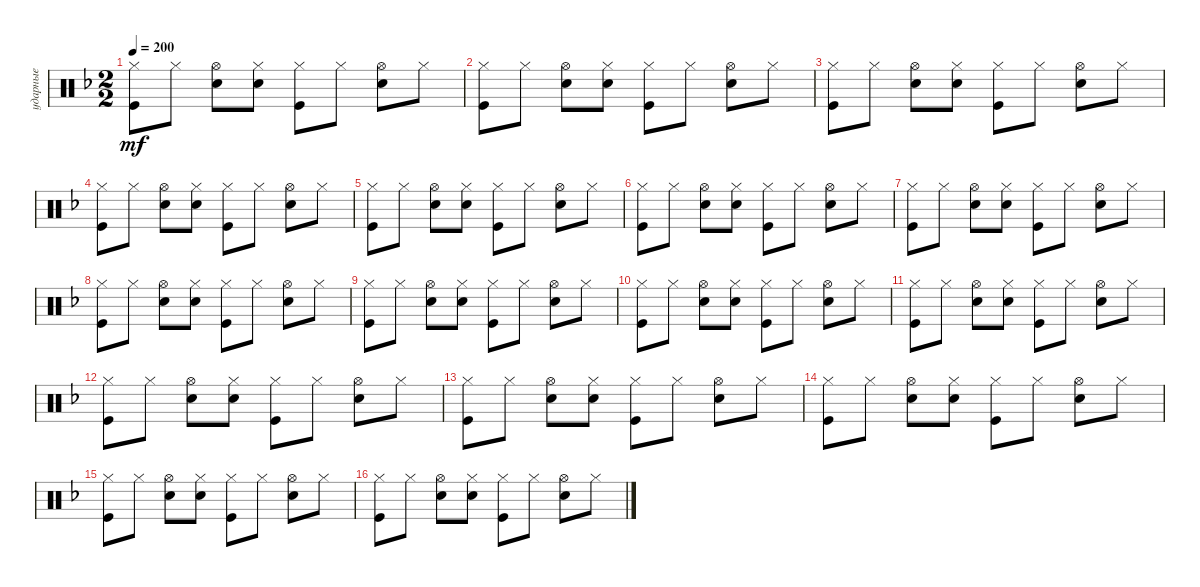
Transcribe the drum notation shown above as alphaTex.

\track ("ударные" "ударные") {instrument percussion}
\staff {score}
\articulation defaults
\ts (2 2)
\tempo 200
\clef neutral
\ks dminor
("Kick (hit)" "Hi-Hat (closed)").8{dy mf} "Hi-Hat (closed)".8 ("Snare (hit) 2" "Hi-Hat (open)").8 ("Snare (hit) 2" "Hi-Hat (closed)").8 ("Kick (hit)" "Hi-Hat (closed)").8 "Hi-Hat (closed)".8 ("Snare (hit) 2" "Hi-Hat (open)").8 "Hi-Hat (closed)".8 |
("Kick (hit)" "Hi-Hat (closed)").8 "Hi-Hat (closed)".8 ("Snare (hit) 2" "Hi-Hat (open)").8 ("Snare (hit) 2" "Hi-Hat (closed)").8 ("Kick (hit)" "Hi-Hat (closed)").8 "Hi-Hat (closed)".8 ("Snare (hit) 2" "Hi-Hat (open)").8 "Hi-Hat (closed)".8 |
("Kick (hit)" "Hi-Hat (closed)").8 "Hi-Hat (closed)".8 ("Snare (hit) 2" "Hi-Hat (open)").8 ("Snare (hit) 2" "Hi-Hat (closed)").8 ("Kick (hit)" "Hi-Hat (closed)").8 "Hi-Hat (closed)".8 ("Snare (hit) 2" "Hi-Hat (open)").8 "Hi-Hat (closed)".8 |
("Kick (hit)" "Hi-Hat (closed)").8 "Hi-Hat (closed)".8 ("Snare (hit) 2" "Hi-Hat (open)").8 ("Snare (hit) 2" "Hi-Hat (closed)").8 ("Kick (hit)" "Hi-Hat (closed)").8 "Hi-Hat (closed)".8 ("Snare (hit) 2" "Hi-Hat (open)").8 "Hi-Hat (closed)".8 |
("Kick (hit)" "Hi-Hat (closed)").8 "Hi-Hat (closed)".8 ("Snare (hit) 2" "Hi-Hat (open)").8 ("Snare (hit) 2" "Hi-Hat (closed)").8 ("Kick (hit)" "Hi-Hat (closed)").8 "Hi-Hat (closed)".8 ("Snare (hit) 2" "Hi-Hat (open)").8 "Hi-Hat (closed)".8 |
("Kick (hit)" "Hi-Hat (closed)").8 "Hi-Hat (closed)".8 ("Snare (hit) 2" "Hi-Hat (open)").8 ("Snare (hit) 2" "Hi-Hat (closed)").8 ("Kick (hit)" "Hi-Hat (closed)").8 "Hi-Hat (closed)".8 ("Snare (hit) 2" "Hi-Hat (open)").8 "Hi-Hat (closed)".8 |
("Kick (hit)" "Hi-Hat (closed)").8 "Hi-Hat (closed)".8 ("Snare (hit) 2" "Hi-Hat (open)").8 ("Snare (hit) 2" "Hi-Hat (closed)").8 ("Kick (hit)" "Hi-Hat (closed)").8 "Hi-Hat (closed)".8 ("Snare (hit) 2" "Hi-Hat (open)").8 "Hi-Hat (closed)".8 |
("Kick (hit)" "Hi-Hat (closed)").8 "Hi-Hat (closed)".8 ("Snare (hit) 2" "Hi-Hat (open)").8 ("Snare (hit) 2" "Hi-Hat (closed)").8 ("Kick (hit)" "Hi-Hat (closed)").8 "Hi-Hat (closed)".8 ("Snare (hit) 2" "Hi-Hat (open)").8 "Hi-Hat (closed)".8 |
("Kick (hit)" "Hi-Hat (closed)").8 "Hi-Hat (closed)".8 ("Snare (hit) 2" "Hi-Hat (open)").8 ("Snare (hit) 2" "Hi-Hat (closed)").8 ("Kick (hit)" "Hi-Hat (closed)").8 "Hi-Hat (closed)".8 ("Snare (hit) 2" "Hi-Hat (open)").8 "Hi-Hat (closed)".8 |
("Kick (hit)" "Hi-Hat (closed)").8 "Hi-Hat (closed)".8 ("Snare (hit) 2" "Hi-Hat (open)").8 ("Snare (hit) 2" "Hi-Hat (closed)").8 ("Kick (hit)" "Hi-Hat (closed)").8 "Hi-Hat (closed)".8 ("Snare (hit) 2" "Hi-Hat (open)").8 "Hi-Hat (closed)".8 |
("Kick (hit)" "Hi-Hat (closed)").8 "Hi-Hat (closed)".8 ("Snare (hit) 2" "Hi-Hat (open)").8 ("Snare (hit) 2" "Hi-Hat (closed)").8 ("Kick (hit)" "Hi-Hat (closed)").8 "Hi-Hat (closed)".8 ("Snare (hit) 2" "Hi-Hat (open)").8 "Hi-Hat (closed)".8 |
("Kick (hit)" "Hi-Hat (closed)").8 "Hi-Hat (closed)".8 ("Snare (hit) 2" "Hi-Hat (open)").8 ("Snare (hit) 2" "Hi-Hat (closed)").8 ("Kick (hit)" "Hi-Hat (closed)").8 "Hi-Hat (closed)".8 ("Snare (hit) 2" "Hi-Hat (open)").8 "Hi-Hat (closed)".8 |
("Kick (hit)" "Hi-Hat (closed)").8 "Hi-Hat (closed)".8 ("Snare (hit) 2" "Hi-Hat (open)").8 ("Snare (hit) 2" "Hi-Hat (closed)").8 ("Kick (hit)" "Hi-Hat (closed)").8 "Hi-Hat (closed)".8 ("Snare (hit) 2" "Hi-Hat (open)").8 "Hi-Hat (closed)".8 |
("Kick (hit)" "Hi-Hat (closed)").8 "Hi-Hat (closed)".8 ("Snare (hit) 2" "Hi-Hat (open)").8 ("Snare (hit) 2" "Hi-Hat (closed)").8 ("Kick (hit)" "Hi-Hat (closed)").8 "Hi-Hat (closed)".8 ("Snare (hit) 2" "Hi-Hat (open)").8 "Hi-Hat (closed)".8 |
("Kick (hit)" "Hi-Hat (closed)").8 "Hi-Hat (closed)".8 ("Snare (hit) 2" "Hi-Hat (open)").8 ("Snare (hit) 2" "Hi-Hat (closed)").8 ("Kick (hit)" "Hi-Hat (closed)").8 "Hi-Hat (closed)".8 ("Snare (hit) 2" "Hi-Hat (open)").8 "Hi-Hat (closed)".8 |
("Kick (hit)" "Hi-Hat (closed)").8 "Hi-Hat (closed)".8 ("Snare (hit) 2" "Hi-Hat (open)").8 ("Snare (hit) 2" "Hi-Hat (closed)").8 ("Kick (hit)" "Hi-Hat (closed)").8 "Hi-Hat (closed)".8 ("Snare (hit) 2" "Hi-Hat (open)").8 "Hi-Hat (closed)".8
